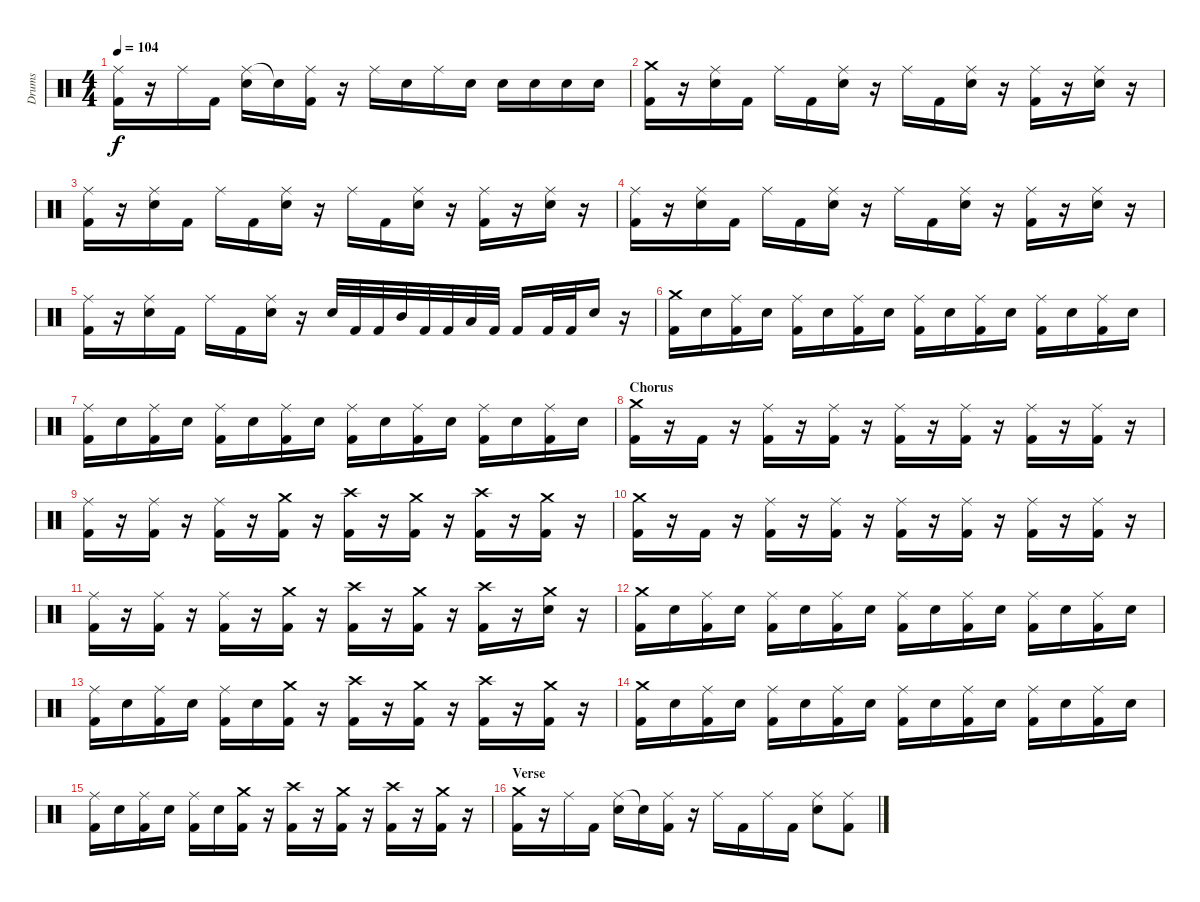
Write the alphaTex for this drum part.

\track ("Drums" "Drums") {instrument percussion}
\staff {score}
\articulation defaults
\ts (4 4)
\tempo 104
\clef neutral
\ks c
("Ride (middle)" "Kick (hit) 2").16{dy f} r.16 "Ride (middle)".16 "Kick (hit) 2".16 ("Ride (middle)" "Electric Snare (hit)").16 "Snare (hit)"{t}.16 ("Ride (middle)" "Kick (hit) 2").16 r.16 "Ride (middle)".16 "Electric Snare (hit)".16 "Ride (middle)".16 "Electric Snare (hit)".16 "Electric Snare (hit)".16 "Electric Snare (hit)".16 "Electric Snare (hit)".16 "Electric Snare (hit)".16 |
("Crash medium (hit)" "Kick (hit) 2").16 r.16 ("Ride (middle)" "Electric Snare (hit)").16 "Kick (hit) 2".16 "Ride (middle)".16 "Kick (hit) 2".16 ("Ride (middle)" "Electric Snare (hit)").16 r.16 "Ride (middle)".16 "Kick (hit) 2".16 ("Ride (middle)" "Electric Snare (hit)").16 r.16 ("Ride (middle)" "Kick (hit) 2").16 r.16 ("Ride (middle)" "Electric Snare (hit)").16 r.16 |
("Ride (middle)" "Kick (hit) 2").16 r.16 ("Ride (middle)" "Electric Snare (hit)").16 "Kick (hit) 2".16 "Ride (middle)".16 "Kick (hit) 2".16 ("Ride (middle)" "Electric Snare (hit)").16 r.16 "Ride (middle)".16 "Kick (hit) 2".16 ("Ride (middle)" "Electric Snare (hit)").16 r.16 ("Ride (middle)" "Kick (hit) 2").16 r.16 ("Ride (middle)" "Electric Snare (hit)").16 r.16 |
("Ride (middle)" "Kick (hit) 2").16 r.16 ("Ride (middle)" "Electric Snare (hit)").16 "Kick (hit) 2".16 "Ride (middle)".16 "Kick (hit) 2".16 ("Ride (middle)" "Electric Snare (hit)").16 r.16 "Ride (middle)".16 "Kick (hit) 2".16 ("Ride (middle)" "Electric Snare (hit)").16 r.16 ("Ride (middle)" "Kick (hit) 2").16 r.16 ("Ride (middle)" "Electric Snare (hit)").16 r.16 |
("Ride (middle)" "Kick (hit) 2").16 r.16 ("Ride (middle)" "Electric Snare (hit)").16 "Kick (hit) 2".16 "Ride (middle)".16 "Kick (hit) 2".16 ("Ride (middle)" "Electric Snare (hit)").16 r.16 "Electric Snare (hit)".32 "Kick (hit) 2".32 "Kick (hit) 2".32 "Mid Tom (hit)".32 "Kick (hit) 2".32 "Kick (hit) 2".32 "Low Tom (hit)".32 "Kick (hit) 2".32 "Kick (hit) 2".16 "Kick (hit) 2".32 "Kick (hit) 2".32 "Electric Snare (hit)".16 r.16 |
\section ("" "")
("Crash medium (hit)" "Kick (hit) 2").16 "Electric Snare (hit)".16 ("Ride (middle)" "Kick (hit) 2").16 "Electric Snare (hit)".16 ("Ride (middle)" "Kick (hit) 2").16 "Electric Snare (hit)".16 ("Ride (middle)" "Kick (hit) 2").16 "Electric Snare (hit)".16 ("Ride (middle)" "Kick (hit) 2").16 "Electric Snare (hit)".16 ("Ride (middle)" "Kick (hit) 2").16 "Electric Snare (hit)".16 ("Ride (middle)" "Kick (hit) 2").16 "Electric Snare (hit)".16 ("Ride (middle)" "Kick (hit) 2").16 "Electric Snare (hit)".16 |
("Ride (middle)" "Kick (hit) 2").16 "Electric Snare (hit)".16 ("Ride (middle)" "Kick (hit) 2").16 "Electric Snare (hit)".16 ("Ride (middle)" "Kick (hit) 2").16 "Electric Snare (hit)".16 ("Ride (middle)" "Kick (hit) 2").16 "Electric Snare (hit)".16 ("Ride (middle)" "Kick (hit) 2").16 "Electric Snare (hit)".16 ("Ride (middle)" "Kick (hit) 2").16 "Electric Snare (hit)".16 ("Ride (middle)" "Kick (hit) 2").16 "Electric Snare (hit)".16 ("Ride (middle)" "Kick (hit) 2").16 "Electric Snare (hit)".16 |
\section ("" "Chorus")
("Crash medium (hit)" "Kick (hit) 2").16 r.16 "Kick (hit) 2".16 r.16 ("Ride (middle)" "Kick (hit) 2").16 r.16 ("Ride (middle)" "Kick (hit) 2").16 r.16 ("Ride (middle)" "Kick (hit) 2").16 r.16 ("Ride (middle)" "Kick (hit) 2").16 r.16 ("Ride (middle)" "Kick (hit) 2").16 r.16 ("Ride (middle)" "Kick (hit) 2").16 r.16 |
("Ride (middle)" "Kick (hit) 2").16 r.16 ("Ride (middle)" "Kick (hit) 2").16 r.16 ("Ride (middle)" "Kick (hit) 2").16 r.16 ("Crash medium (hit)" "Kick (hit) 2").16 r.16 ("Crash high (hit)" "Kick (hit) 2").16 r.16 ("Crash medium (hit)" "Kick (hit) 2").16 r.16 ("Crash high (hit)" "Kick (hit) 2").16 r.16 ("Crash medium (hit)" "Kick (hit) 2").16 r.16 |
("Crash medium (hit)" "Kick (hit) 2").16 r.16 "Kick (hit) 2".16 r.16 ("Ride (middle)" "Kick (hit) 2").16 r.16 ("Ride (middle)" "Kick (hit) 2").16 r.16 ("Ride (middle)" "Kick (hit) 2").16 r.16 ("Ride (middle)" "Kick (hit) 2").16 r.16 ("Ride (middle)" "Kick (hit) 2").16 r.16 ("Ride (middle)" "Kick (hit) 2").16 r.16 |
("Ride (middle)" "Kick (hit) 2").16 r.16 ("Ride (middle)" "Kick (hit) 2").16 r.16 ("Ride (middle)" "Kick (hit) 2").16 r.16 ("Crash medium (hit)" "Kick (hit) 2").16 r.16 ("Crash high (hit)" "Kick (hit) 2").16 r.16 ("Crash medium (hit)" "Kick (hit) 2").16 r.16 ("Crash high (hit)" "Kick (hit) 2").16 r.16 ("Crash medium (hit)" "Electric Snare (hit)").16 r.16 |
("Crash medium (hit)" "Kick (hit) 2").16 "Electric Snare (hit)".16 ("Ride (middle)" "Kick (hit) 2").16 "Electric Snare (hit)".16 ("Ride (middle)" "Kick (hit) 2").16 "Electric Snare (hit)".16 ("Ride (middle)" "Kick (hit) 2").16 "Electric Snare (hit)".16 ("Ride (middle)" "Kick (hit) 2").16 "Electric Snare (hit)".16 ("Ride (middle)" "Kick (hit) 2").16 "Electric Snare (hit)".16 ("Ride (middle)" "Kick (hit) 2").16 "Electric Snare (hit)".16 ("Ride (middle)" "Kick (hit) 2").16 "Electric Snare (hit)".16 |
("Ride (middle)" "Kick (hit) 2").16 "Electric Snare (hit)".16 ("Ride (middle)" "Kick (hit) 2").16 "Electric Snare (hit)".16 ("Ride (middle)" "Kick (hit) 2").16 "Electric Snare (hit)".16 ("Crash medium (hit)" "Kick (hit) 2").16 r.16 ("Crash high (hit)" "Kick (hit) 2").16 r.16 ("Crash medium (hit)" "Kick (hit) 2").16 r.16 ("Crash high (hit)" "Kick (hit) 2").16 r.16 ("Crash medium (hit)" "Kick (hit) 2").16 r.16 |
("Crash medium (hit)" "Kick (hit) 2").16 "Electric Snare (hit)".16 ("Ride (middle)" "Kick (hit) 2").16 "Electric Snare (hit)".16 ("Ride (middle)" "Kick (hit) 2").16 "Electric Snare (hit)".16 ("Ride (middle)" "Kick (hit) 2").16 "Electric Snare (hit)".16 ("Ride (middle)" "Kick (hit) 2").16 "Electric Snare (hit)".16 ("Ride (middle)" "Kick (hit) 2").16 "Electric Snare (hit)".16 ("Ride (middle)" "Kick (hit) 2").16 "Electric Snare (hit)".16 ("Ride (middle)" "Kick (hit) 2").16 "Electric Snare (hit)".16 |
("Ride (middle)" "Kick (hit) 2").16 "Electric Snare (hit)".16 ("Ride (middle)" "Kick (hit) 2").16 "Electric Snare (hit)".16 ("Ride (middle)" "Kick (hit) 2").16 "Electric Snare (hit)".16 ("Crash medium (hit)" "Kick (hit) 2").16 r.16 ("Crash high (hit)" "Kick (hit) 2").16 r.16 ("Crash medium (hit)" "Kick (hit) 2").16 r.16 ("Crash high (hit)" "Kick (hit) 2").16 r.16 ("Crash medium (hit)" "Kick (hit) 2").16 r.16 |
\section ("" "Verse")
("Crash medium (hit)" "Kick (hit) 2").16 r.16 "Ride (middle)".16 "Kick (hit) 2".16 ("Ride (middle)" "Electric Snare (hit)").16 "Snare (hit)"{t}.16 ("Ride (middle)" "Kick (hit) 2").16 r.16 "Ride (middle)".16 "Kick (hit) 2".16 "Ride (middle)".16 "Kick (hit) 2".16 ("Ride (middle)" "Electric Snare (hit)").8 ("Ride (middle)" "Kick (hit) 2").8
